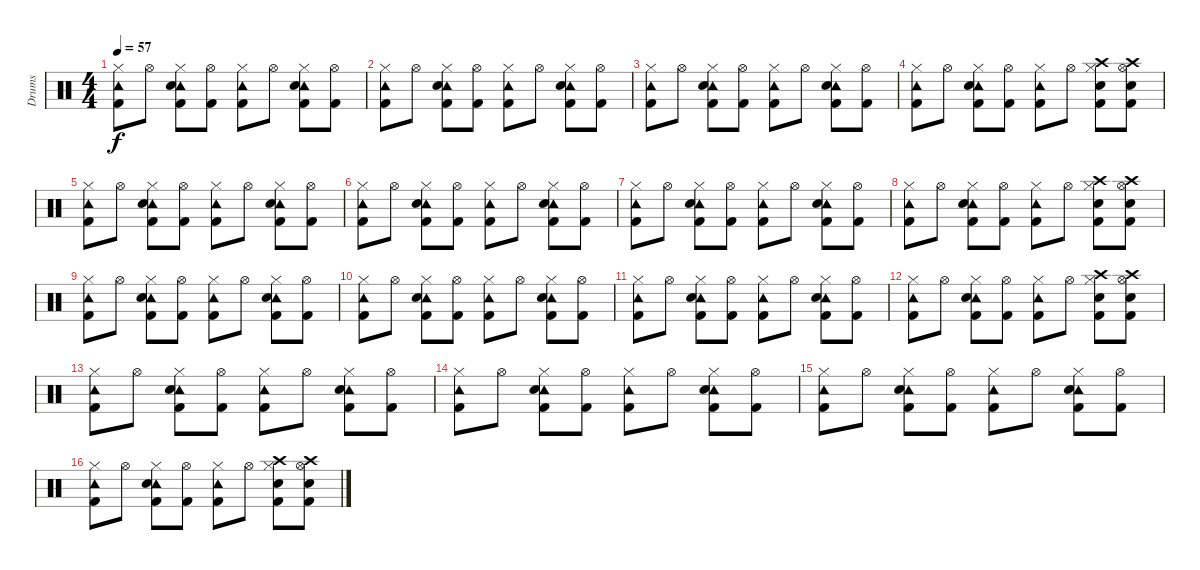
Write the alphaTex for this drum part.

\track ("Drums" "Drums") {instrument percussion}
\staff {score}
\articulation defaults
\ts (4 4)
\tempo 57
\clef neutral
\ks c
("Tambourine (hit)" "Hi-Hat (closed)" "Kick (hit) 2").8{dy f} "Hi-Hat (open)".8 ("Tambourine (hit)" "Electric Snare (hit)" "Hi-Hat (closed)" "Kick (hit) 2").8 ("Hi-Hat (open)" "Kick (hit) 2").8 ("Tambourine (hit)" "Hi-Hat (closed)" "Kick (hit) 2").8 "Hi-Hat (open)".8 ("Tambourine (hit)" "Electric Snare (hit)" "Hi-Hat (closed)" "Kick (hit) 2").8 ("Hi-Hat (open)" "Kick (hit) 2").8 |
("Hi-Hat (closed)" "Tambourine (hit)" "Kick (hit) 2").8 "Hi-Hat (open)".8 ("Tambourine (hit)" "Electric Snare (hit)" "Hi-Hat (closed)" "Kick (hit) 2").8 ("Hi-Hat (open)" "Kick (hit) 2").8 ("Tambourine (hit)" "Hi-Hat (closed)" "Kick (hit) 2").8 "Hi-Hat (open)".8 ("Tambourine (hit)" "Electric Snare (hit)" "Hi-Hat (closed)" "Kick (hit) 2").8 ("Hi-Hat (open)" "Kick (hit) 2").8 |
("Hi-Hat (closed)" "Tambourine (hit)" "Kick (hit) 2").8 "Hi-Hat (open)".8 ("Tambourine (hit)" "Electric Snare (hit)" "Hi-Hat (closed)" "Kick (hit) 2").8 ("Hi-Hat (open)" "Kick (hit) 2").8 ("Tambourine (hit)" "Hi-Hat (closed)" "Kick (hit) 2").8 "Hi-Hat (open)".8 ("Tambourine (hit)" "Electric Snare (hit)" "Hi-Hat (closed)" "Kick (hit) 2").8 ("Hi-Hat (open)" "Kick (hit) 2").8 |
("Tambourine (hit)" "Hi-Hat (closed)" "Kick (hit) 2").8 "Hi-Hat (open)".8 ("Tambourine (hit)" "Electric Snare (hit)" "Hi-Hat (closed)" "Kick (hit) 2").8 ("Hi-Hat (open)" "Kick (hit) 2").8 ("Tambourine (hit)" "Hi-Hat (closed)" "Kick (hit) 2").8 "Hi-Hat (open)".8 ("Crash high (hit)" "Electric Snare (hit)" "Hi-Hat (closed)" "Kick (hit) 2").8 ("Electric Snare (hit)" "Crash high (hit)" "Hi-Hat (open)" "Kick (hit) 2").8 |
("Tambourine (hit)" "Hi-Hat (closed)" "Kick (hit) 2").8 "Hi-Hat (open)".8 ("Tambourine (hit)" "Electric Snare (hit)" "Hi-Hat (closed)" "Kick (hit) 2").8 ("Hi-Hat (open)" "Kick (hit) 2").8 ("Tambourine (hit)" "Hi-Hat (closed)" "Kick (hit) 2").8 "Hi-Hat (open)".8 ("Tambourine (hit)" "Electric Snare (hit)" "Hi-Hat (closed)" "Kick (hit) 2").8 ("Hi-Hat (open)" "Kick (hit) 2").8 |
("Hi-Hat (closed)" "Tambourine (hit)" "Kick (hit) 2").8 "Hi-Hat (open)".8 ("Tambourine (hit)" "Electric Snare (hit)" "Hi-Hat (closed)" "Kick (hit) 2").8 ("Hi-Hat (open)" "Kick (hit) 2").8 ("Tambourine (hit)" "Hi-Hat (closed)" "Kick (hit) 2").8 "Hi-Hat (open)".8 ("Tambourine (hit)" "Electric Snare (hit)" "Hi-Hat (closed)" "Kick (hit) 2").8 ("Hi-Hat (open)" "Kick (hit) 2").8 |
("Hi-Hat (closed)" "Tambourine (hit)" "Kick (hit) 2").8 "Hi-Hat (open)".8 ("Tambourine (hit)" "Electric Snare (hit)" "Hi-Hat (closed)" "Kick (hit) 2").8 ("Hi-Hat (open)" "Kick (hit) 2").8 ("Tambourine (hit)" "Hi-Hat (closed)" "Kick (hit) 2").8 "Hi-Hat (open)".8 ("Tambourine (hit)" "Electric Snare (hit)" "Hi-Hat (closed)" "Kick (hit) 2").8 ("Hi-Hat (open)" "Kick (hit) 2").8 |
("Tambourine (hit)" "Hi-Hat (closed)" "Kick (hit) 2").8 "Hi-Hat (open)".8 ("Tambourine (hit)" "Electric Snare (hit)" "Hi-Hat (closed)" "Kick (hit) 2").8 ("Hi-Hat (open)" "Kick (hit) 2").8 ("Tambourine (hit)" "Hi-Hat (closed)" "Kick (hit) 2").8 "Hi-Hat (open)".8 ("Crash high (hit)" "Electric Snare (hit)" "Hi-Hat (closed)" "Kick (hit) 2").8 ("Electric Snare (hit)" "Crash high (hit)" "Hi-Hat (open)" "Kick (hit) 2").8 |
("Tambourine (hit)" "Hi-Hat (closed)" "Kick (hit) 2").8 "Hi-Hat (open)".8 ("Tambourine (hit)" "Electric Snare (hit)" "Hi-Hat (closed)" "Kick (hit) 2").8 ("Hi-Hat (open)" "Kick (hit) 2").8 ("Tambourine (hit)" "Hi-Hat (closed)" "Kick (hit) 2").8 "Hi-Hat (open)".8 ("Tambourine (hit)" "Electric Snare (hit)" "Hi-Hat (closed)" "Kick (hit) 2").8 ("Hi-Hat (open)" "Kick (hit) 2").8 |
("Hi-Hat (closed)" "Tambourine (hit)" "Kick (hit) 2").8 "Hi-Hat (open)".8 ("Tambourine (hit)" "Electric Snare (hit)" "Hi-Hat (closed)" "Kick (hit) 2").8 ("Hi-Hat (open)" "Kick (hit) 2").8 ("Tambourine (hit)" "Hi-Hat (closed)" "Kick (hit) 2").8 "Hi-Hat (open)".8 ("Tambourine (hit)" "Electric Snare (hit)" "Hi-Hat (closed)" "Kick (hit) 2").8 ("Hi-Hat (open)" "Kick (hit) 2").8 |
("Hi-Hat (closed)" "Tambourine (hit)" "Kick (hit) 2").8 "Hi-Hat (open)".8 ("Tambourine (hit)" "Electric Snare (hit)" "Hi-Hat (closed)" "Kick (hit) 2").8 ("Hi-Hat (open)" "Kick (hit) 2").8 ("Tambourine (hit)" "Hi-Hat (closed)" "Kick (hit) 2").8 "Hi-Hat (open)".8 ("Tambourine (hit)" "Electric Snare (hit)" "Hi-Hat (closed)" "Kick (hit) 2").8 ("Hi-Hat (open)" "Kick (hit) 2").8 |
("Tambourine (hit)" "Hi-Hat (closed)" "Kick (hit) 2").8 "Hi-Hat (open)".8 ("Tambourine (hit)" "Electric Snare (hit)" "Hi-Hat (closed)" "Kick (hit) 2").8 ("Hi-Hat (open)" "Kick (hit) 2").8 ("Tambourine (hit)" "Hi-Hat (closed)" "Kick (hit) 2").8 "Hi-Hat (open)".8 ("Crash high (hit)" "Electric Snare (hit)" "Hi-Hat (closed)" "Kick (hit) 2").8 ("Electric Snare (hit)" "Crash high (hit)" "Hi-Hat (open)" "Kick (hit) 2").8 |
("Tambourine (hit)" "Hi-Hat (closed)" "Kick (hit) 2").8 "Hi-Hat (open)".8 ("Tambourine (hit)" "Electric Snare (hit)" "Hi-Hat (closed)" "Kick (hit) 2").8 ("Hi-Hat (open)" "Kick (hit) 2").8 ("Tambourine (hit)" "Hi-Hat (closed)" "Kick (hit) 2").8 "Hi-Hat (open)".8 ("Tambourine (hit)" "Electric Snare (hit)" "Hi-Hat (closed)" "Kick (hit) 2").8 ("Hi-Hat (open)" "Kick (hit) 2").8 |
("Hi-Hat (closed)" "Tambourine (hit)" "Kick (hit) 2").8 "Hi-Hat (open)".8 ("Tambourine (hit)" "Electric Snare (hit)" "Hi-Hat (closed)" "Kick (hit) 2").8 ("Hi-Hat (open)" "Kick (hit) 2").8 ("Tambourine (hit)" "Hi-Hat (closed)" "Kick (hit) 2").8 "Hi-Hat (open)".8 ("Tambourine (hit)" "Electric Snare (hit)" "Hi-Hat (closed)" "Kick (hit) 2").8 ("Hi-Hat (open)" "Kick (hit) 2").8 |
("Hi-Hat (closed)" "Tambourine (hit)" "Kick (hit) 2").8 "Hi-Hat (open)".8 ("Tambourine (hit)" "Electric Snare (hit)" "Hi-Hat (closed)" "Kick (hit) 2").8 ("Hi-Hat (open)" "Kick (hit) 2").8 ("Tambourine (hit)" "Hi-Hat (closed)" "Kick (hit) 2").8 "Hi-Hat (open)".8 ("Tambourine (hit)" "Electric Snare (hit)" "Hi-Hat (closed)" "Kick (hit) 2").8 ("Hi-Hat (open)" "Kick (hit) 2").8 |
("Tambourine (hit)" "Hi-Hat (closed)" "Kick (hit) 2").8 "Hi-Hat (open)".8 ("Tambourine (hit)" "Electric Snare (hit)" "Hi-Hat (closed)" "Kick (hit) 2").8 ("Hi-Hat (open)" "Kick (hit) 2").8 ("Tambourine (hit)" "Hi-Hat (closed)" "Kick (hit) 2").8 "Hi-Hat (open)".8 ("Crash high (hit)" "Electric Snare (hit)" "Hi-Hat (closed)" "Kick (hit) 2").8 ("Electric Snare (hit)" "Crash high (hit)" "Hi-Hat (open)" "Kick (hit) 2").8
